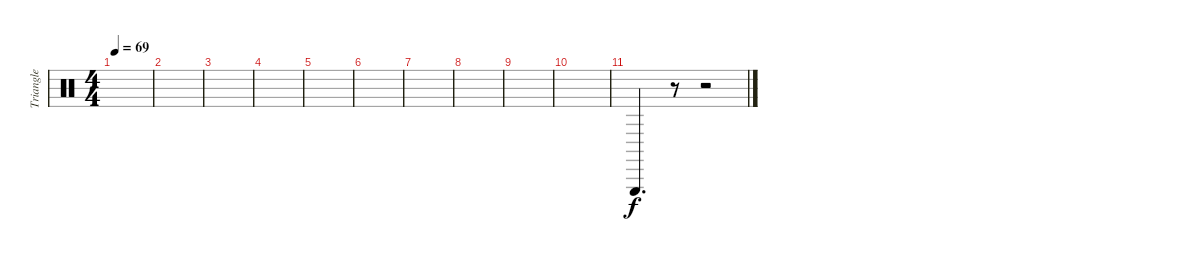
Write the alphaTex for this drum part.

\track ("Triangle" "Triangle") {instrument percussion}
\staff {score}
\articulation defaults
\ts (4 4)
\tempo 69
\clef neutral
\ks c
|
|
|
|
|
|
|
|
|
|
"Triangle (hit)".4{d} r.8 r.2
